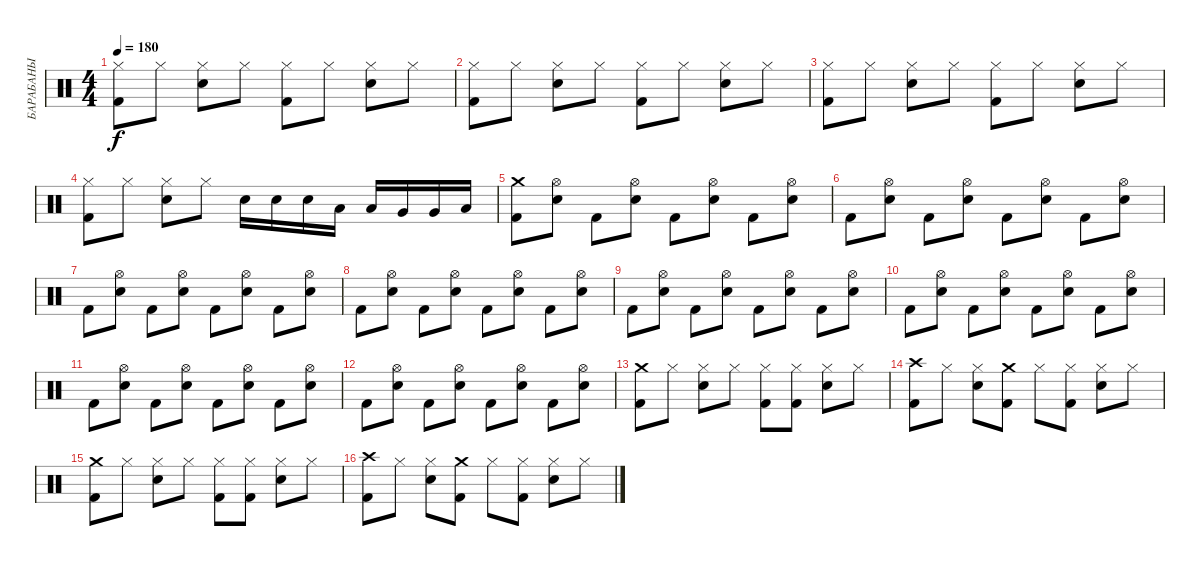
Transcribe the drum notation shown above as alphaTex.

\track ("БАРАБАНЫ" "БАРАБАНЫ") {instrument percussion}
\staff {score}
\articulation defaults
\ts (4 4)
\tempo 180
\clef neutral
\ks c
("Hi-Hat (closed)" "Kick (hit) 2").8{dy f} "Hi-Hat (closed)".8 ("Hi-Hat (closed)" "Electric Snare (hit)").8 "Hi-Hat (closed)".8 ("Hi-Hat (closed)" "Kick (hit) 2").8 "Hi-Hat (closed)".8 ("Hi-Hat (closed)" "Electric Snare (hit)").8 "Hi-Hat (closed)".8 |
("Hi-Hat (closed)" "Kick (hit) 2").8 "Hi-Hat (closed)".8 ("Hi-Hat (closed)" "Electric Snare (hit)").8 "Hi-Hat (closed)".8 ("Hi-Hat (closed)" "Kick (hit) 2").8 "Hi-Hat (closed)".8 ("Hi-Hat (closed)" "Electric Snare (hit)").8 "Hi-Hat (closed)".8 |
("Hi-Hat (closed)" "Kick (hit) 2").8 "Hi-Hat (closed)".8 ("Hi-Hat (closed)" "Electric Snare (hit)").8 "Hi-Hat (closed)".8 ("Hi-Hat (closed)" "Kick (hit) 2").8 "Hi-Hat (closed)".8 ("Hi-Hat (closed)" "Electric Snare (hit)").8 "Hi-Hat (closed)".8 |
("Hi-Hat (closed)" "Kick (hit) 2").8 "Hi-Hat (closed)".8 ("Hi-Hat (closed)" "Electric Snare (hit)").8 "Hi-Hat (closed)".8 "Electric Snare (hit)".16 "Electric Snare (hit)".16 "Electric Snare (hit)".16 "Low Tom (hit)".16 "Low Tom (hit)".16 "Very Low Tom (hit)".16 "Very Low Tom (hit)".16 "Low Floor Tom (hit)".16 |
("Crash medium (hit)" "Kick (hit) 2").8 ("Hi-Hat (open)" "Electric Snare (hit)").8 "Kick (hit) 2".8 ("Hi-Hat (open)" "Electric Snare (hit)").8 "Kick (hit) 2".8 ("Electric Snare (hit)" "Hi-Hat (open)").8 "Kick (hit) 2".8 ("Electric Snare (hit)" "Hi-Hat (open)").8 |
"Kick (hit) 2".8 ("Hi-Hat (open)" "Electric Snare (hit)").8 "Kick (hit) 2".8 ("Hi-Hat (open)" "Electric Snare (hit)").8 "Kick (hit) 2".8 ("Electric Snare (hit)" "Hi-Hat (open)").8 "Kick (hit) 2".8 ("Electric Snare (hit)" "Hi-Hat (open)").8 |
"Kick (hit) 2".8 ("Hi-Hat (open)" "Electric Snare (hit)").8 "Kick (hit) 2".8 ("Hi-Hat (open)" "Electric Snare (hit)").8 "Kick (hit) 2".8 ("Electric Snare (hit)" "Hi-Hat (open)").8 "Kick (hit) 2".8 ("Electric Snare (hit)" "Hi-Hat (open)").8 |
"Kick (hit) 2".8 ("Hi-Hat (open)" "Electric Snare (hit)").8 "Kick (hit) 2".8 ("Hi-Hat (open)" "Electric Snare (hit)").8 "Kick (hit) 2".8 ("Electric Snare (hit)" "Hi-Hat (open)").8 "Kick (hit) 2".8 ("Electric Snare (hit)" "Hi-Hat (open)").8 |
"Kick (hit) 2".8 ("Hi-Hat (open)" "Electric Snare (hit)").8 "Kick (hit) 2".8 ("Hi-Hat (open)" "Electric Snare (hit)").8 "Kick (hit) 2".8 ("Electric Snare (hit)" "Hi-Hat (open)").8 "Kick (hit) 2".8 ("Electric Snare (hit)" "Hi-Hat (open)").8 |
"Kick (hit) 2".8 ("Hi-Hat (open)" "Electric Snare (hit)").8 "Kick (hit) 2".8 ("Hi-Hat (open)" "Electric Snare (hit)").8 "Kick (hit) 2".8 ("Electric Snare (hit)" "Hi-Hat (open)").8 "Kick (hit) 2".8 ("Electric Snare (hit)" "Hi-Hat (open)").8 |
"Kick (hit) 2".8 ("Hi-Hat (open)" "Electric Snare (hit)").8 "Kick (hit) 2".8 ("Hi-Hat (open)" "Electric Snare (hit)").8 "Kick (hit) 2".8 ("Electric Snare (hit)" "Hi-Hat (open)").8 "Kick (hit) 2".8 ("Electric Snare (hit)" "Hi-Hat (open)").8 |
"Kick (hit) 2".8 ("Hi-Hat (open)" "Electric Snare (hit)").8 "Kick (hit) 2".8 ("Hi-Hat (open)" "Electric Snare (hit)").8 "Kick (hit) 2".8 ("Electric Snare (hit)" "Hi-Hat (open)").8 "Kick (hit) 2".8 ("Electric Snare (hit)" "Hi-Hat (open)").8 |
("Crash medium (hit)" "Kick (hit) 2").8 "Hi-Hat (closed)".8 ("Hi-Hat (closed)" "Electric Snare (hit)").8 "Hi-Hat (closed)".8 ("Hi-Hat (closed)" "Kick (hit) 2").8 ("Hi-Hat (closed)" "Kick (hit) 2").8 ("Hi-Hat (closed)" "Electric Snare (hit)").8 "Hi-Hat (closed)".8 |
("Crash high (hit)" "Kick (hit) 2").8 "Hi-Hat (closed)".8 ("Hi-Hat (closed)" "Electric Snare (hit)").8 ("Crash medium (hit)" "Kick (hit) 2").8 "Hi-Hat (closed)".8 ("Hi-Hat (closed)" "Kick (hit) 2").8 ("Hi-Hat (closed)" "Electric Snare (hit)").8 "Hi-Hat (closed)".8 |
("Crash medium (hit)" "Kick (hit) 2").8 "Hi-Hat (closed)".8 ("Hi-Hat (closed)" "Electric Snare (hit)").8 "Hi-Hat (closed)".8 ("Hi-Hat (closed)" "Kick (hit) 2").8 ("Hi-Hat (closed)" "Kick (hit) 2").8 ("Hi-Hat (closed)" "Electric Snare (hit)").8 "Hi-Hat (closed)".8 |
("Crash high (hit)" "Kick (hit) 2").8 "Hi-Hat (closed)".8 ("Hi-Hat (closed)" "Electric Snare (hit)").8 ("Crash medium (hit)" "Kick (hit) 2").8 "Hi-Hat (closed)".8 ("Hi-Hat (closed)" "Kick (hit) 2").8 ("Hi-Hat (closed)" "Electric Snare (hit)").8 "Hi-Hat (closed)".8
